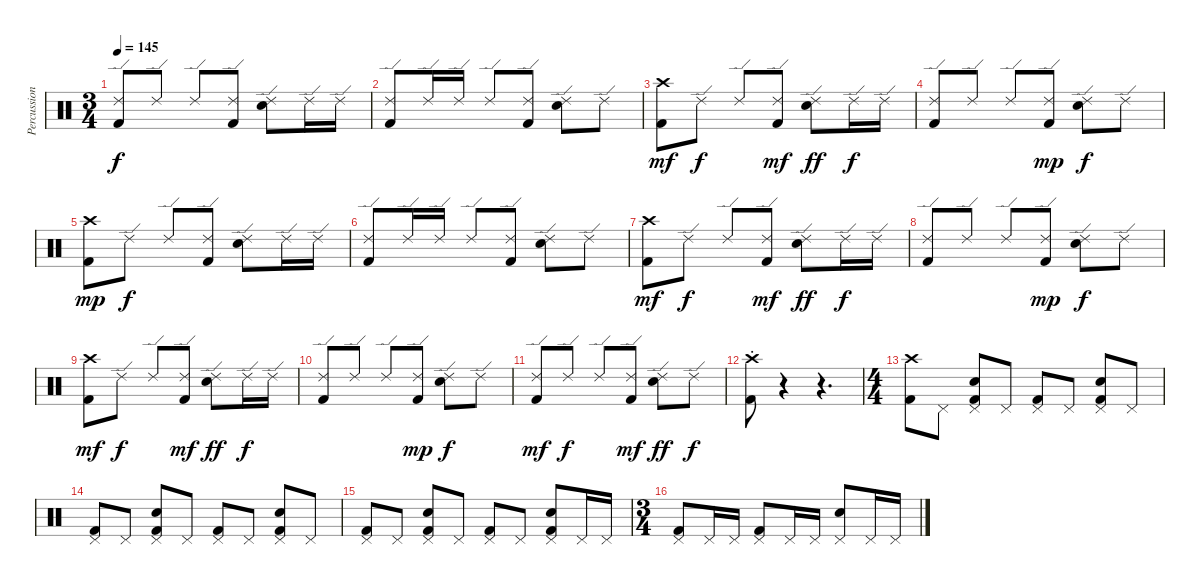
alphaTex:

\track ("Percussion" "Percussion") {instrument percussion}
\staff {score}
\articulation defaults
\ts (3 4)
\tempo 145
\clef neutral
\ks c
("Ride (edge) 2" "Kick (hit) 2").8{dy f} "Ride (edge) 2".8 "Ride (edge) 2".8 ("Ride (edge) 2" "Kick (hit) 2").8 ("Ride (edge) 2" "Electric Snare (hit)").8 "Ride (edge) 2".16 "Ride (edge) 2".16 |
("Ride (edge) 2" "Kick (hit) 2").8 "Ride (edge) 2".16 "Ride (edge) 2".16 "Ride (edge) 2".8 ("Ride (edge) 2" "Kick (hit) 2").8 ("Ride (edge) 2" "Electric Snare (hit)").8 "Ride (edge) 2".8 |
("Kick (hit) 2" "Crash high (hit)").8{dy mf} "Ride (edge) 2".8{dy f} "Ride (edge) 2".8 ("Ride (edge) 2" "Kick (hit) 2").8{dy mf} ("Ride (edge) 2" "Electric Snare (hit)").8{dy ff} "Ride (edge) 2".16{dy f} "Ride (edge) 2".16 |
("Ride (edge) 2" "Kick (hit) 2").8 "Ride (edge) 2".8 "Ride (edge) 2".8 ("Ride (edge) 2" "Kick (hit) 2").8{dy mp} ("Ride (edge) 2" "Electric Snare (hit)").8{dy f} "Ride (edge) 2".8 |
("Crash high (hit)" "Kick (hit) 2").8{dy mp} "Ride (edge) 2".8{dy f} "Ride (edge) 2".8 ("Ride (edge) 2" "Kick (hit) 2").8 ("Ride (edge) 2" "Electric Snare (hit)").8 "Ride (edge) 2".16 "Ride (edge) 2".16 |
("Ride (edge) 2" "Kick (hit) 2").8 "Ride (edge) 2".16 "Ride (edge) 2".16 "Ride (edge) 2".8 ("Ride (edge) 2" "Kick (hit) 2").8 ("Ride (edge) 2" "Electric Snare (hit)").8 "Ride (edge) 2".8 |
("Kick (hit) 2" "Crash high (hit)").8{dy mf} "Ride (edge) 2".8{dy f} "Ride (edge) 2".8 ("Ride (edge) 2" "Kick (hit) 2").8{dy mf} ("Ride (edge) 2" "Electric Snare (hit)").8{dy ff} "Ride (edge) 2".16{dy f} "Ride (edge) 2".16 |
("Ride (edge) 2" "Kick (hit) 2").8 "Ride (edge) 2".8 "Ride (edge) 2".8 ("Ride (edge) 2" "Kick (hit) 2").8{dy mp} ("Ride (edge) 2" "Electric Snare (hit)").8{dy f} "Ride (edge) 2".8 |
("Kick (hit) 2" "Crash high (hit)").8{dy mf} "Ride (edge) 2".8{dy f} "Ride (edge) 2".8 ("Ride (edge) 2" "Kick (hit) 2").8{dy mf} ("Ride (edge) 2" "Electric Snare (hit)").8{dy ff} "Ride (edge) 2".16{dy f} "Ride (edge) 2".16 |
("Ride (edge) 2" "Kick (hit) 2").8 "Ride (edge) 2".8 "Ride (edge) 2".8 ("Ride (edge) 2" "Kick (hit) 2").8{dy mp} ("Ride (edge) 2" "Electric Snare (hit)").8{dy f} "Ride (edge) 2".8 |
("Kick (hit) 2" "Ride (edge) 2").8{dy mf} "Ride (edge) 2".8{dy f} "Ride (edge) 2".8 ("Ride (edge) 2" "Kick (hit) 2").8{dy mf} ("Ride (edge) 2" "Electric Snare (hit)").8{dy ff} "Ride (edge) 2".8{dy f} |
("Crash high (hit)"{st} "Kick (hit) 2").8 r.4 r.4{d} |
\ts (4 4)
("Crash high (hit)" "Kick (hit) 2").8 "Pedal Hi-Hat (hit)".8 ("Pedal Hi-Hat (hit)" "Kick (hit) 2" "Electric Snare (hit)").8 "Pedal Hi-Hat (hit)".8 ("Pedal Hi-Hat (hit)" "Kick (hit) 2").8 "Pedal Hi-Hat (hit)".8 ("Pedal Hi-Hat (hit)" "Kick (hit) 2" "Electric Snare (hit)").8 "Pedal Hi-Hat (hit)".8 |
("Pedal Hi-Hat (hit)" "Kick (hit) 2").8 "Pedal Hi-Hat (hit)".8 ("Pedal Hi-Hat (hit)" "Kick (hit) 2" "Electric Snare (hit)").8 "Pedal Hi-Hat (hit)".8 ("Pedal Hi-Hat (hit)" "Kick (hit) 2").8 "Pedal Hi-Hat (hit)".8 ("Pedal Hi-Hat (hit)" "Kick (hit) 2" "Electric Snare (hit)").8 "Pedal Hi-Hat (hit)".8 |
("Pedal Hi-Hat (hit)" "Kick (hit) 2").8 "Pedal Hi-Hat (hit)".8 ("Pedal Hi-Hat (hit)" "Kick (hit) 2" "Electric Snare (hit)").8 "Pedal Hi-Hat (hit)".8 ("Pedal Hi-Hat (hit)" "Kick (hit) 2").8 "Pedal Hi-Hat (hit)".8 ("Pedal Hi-Hat (hit)" "Kick (hit) 2" "Electric Snare (hit)").8 "Pedal Hi-Hat (hit)".16 "Pedal Hi-Hat (hit)".16 |
\ts (3 4)
("Pedal Hi-Hat (hit)" "Kick (hit) 2").8 "Pedal Hi-Hat (hit)".16 "Pedal Hi-Hat (hit)".16 ("Pedal Hi-Hat (hit)" "Kick (hit) 2").8 "Pedal Hi-Hat (hit)".16 "Pedal Hi-Hat (hit)".16 ("Pedal Hi-Hat (hit)" "Electric Snare (hit)").8 "Pedal Hi-Hat (hit)".16 "Pedal Hi-Hat (hit)".16
